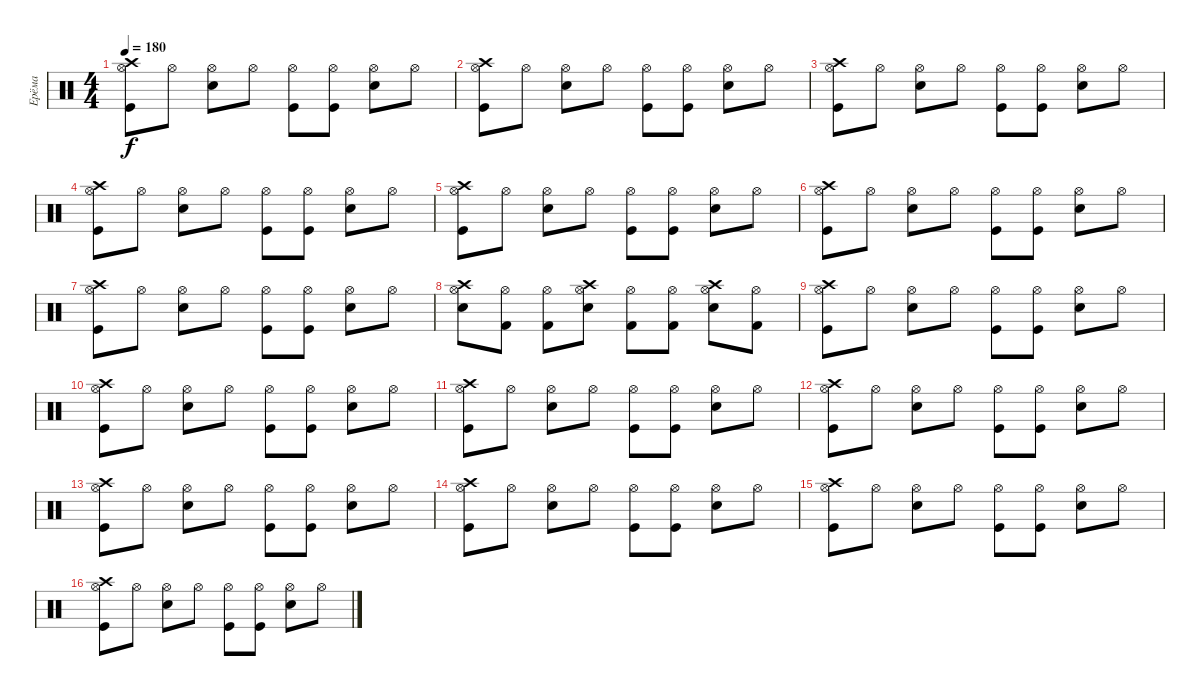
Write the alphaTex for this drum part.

\track ("Ерёма" "Ерёма") {instrument percussion}
\staff {score}
\articulation defaults
\ts (4 4)
\tempo 180
\clef neutral
\ks c
("Hi-Hat (open)" "Kick (hit)" "Crash high (hit)").8{dy f} "Hi-Hat (open)".8 ("Hi-Hat (open)" "Electric Snare (hit)").8 "Hi-Hat (open)".8 ("Hi-Hat (open)" "Kick (hit)").8 ("Hi-Hat (open)" "Kick (hit)").8 ("Hi-Hat (open)" "Electric Snare (hit)").8 "Hi-Hat (open)".8 |
("Hi-Hat (open)" "Kick (hit)" "Crash high (hit)").8 "Hi-Hat (open)".8 ("Hi-Hat (open)" "Electric Snare (hit)").8 "Hi-Hat (open)".8 ("Hi-Hat (open)" "Kick (hit)").8 ("Hi-Hat (open)" "Kick (hit)").8 ("Hi-Hat (open)" "Electric Snare (hit)").8 "Hi-Hat (open)".8 |
("Hi-Hat (open)" "Kick (hit)" "Crash high (hit)").8 "Hi-Hat (open)".8 ("Hi-Hat (open)" "Electric Snare (hit)").8 "Hi-Hat (open)".8 ("Hi-Hat (open)" "Kick (hit)").8 ("Hi-Hat (open)" "Kick (hit)").8 ("Hi-Hat (open)" "Electric Snare (hit)").8 "Hi-Hat (open)".8 |
("Hi-Hat (open)" "Kick (hit)" "Crash high (hit)").8 "Hi-Hat (open)".8 ("Hi-Hat (open)" "Electric Snare (hit)").8 "Hi-Hat (open)".8 ("Hi-Hat (open)" "Kick (hit)").8 ("Hi-Hat (open)" "Kick (hit)").8 ("Hi-Hat (open)" "Electric Snare (hit)").8 "Hi-Hat (open)".8 |
("Hi-Hat (open)" "Kick (hit)" "Crash high (hit)").8 "Hi-Hat (open)".8 ("Hi-Hat (open)" "Electric Snare (hit)").8 "Hi-Hat (open)".8 ("Hi-Hat (open)" "Kick (hit)").8 ("Hi-Hat (open)" "Kick (hit)").8 ("Hi-Hat (open)" "Electric Snare (hit)").8 "Hi-Hat (open)".8 |
("Hi-Hat (open)" "Kick (hit)" "Crash high (hit)").8 "Hi-Hat (open)".8 ("Hi-Hat (open)" "Electric Snare (hit)").8 "Hi-Hat (open)".8 ("Hi-Hat (open)" "Kick (hit)").8 ("Hi-Hat (open)" "Kick (hit)").8 ("Hi-Hat (open)" "Electric Snare (hit)").8 "Hi-Hat (open)".8 |
("Hi-Hat (open)" "Kick (hit)" "Crash high (hit)").8 "Hi-Hat (open)".8 ("Hi-Hat (open)" "Electric Snare (hit)").8 "Hi-Hat (open)".8 ("Hi-Hat (open)" "Kick (hit)").8 ("Hi-Hat (open)" "Kick (hit)").8 ("Hi-Hat (open)" "Electric Snare (hit)").8 "Hi-Hat (open)".8 |
("Hi-Hat (open)" "Electric Snare (hit)" "Crash high (hit)").8 ("Hi-Hat (open)" "Kick (hit) 2").8 ("Hi-Hat (open)" "Kick (hit) 2").8 ("Hi-Hat (open)" "Electric Snare (hit)" "Crash high (hit)").8 ("Hi-Hat (open)" "Kick (hit) 2").8 ("Hi-Hat (open)" "Kick (hit) 2").8 ("Hi-Hat (open)" "Electric Snare (hit)" "Crash high (hit)").8 ("Hi-Hat (open)" "Kick (hit) 2").8 |
("Hi-Hat (open)" "Kick (hit)" "Crash high (hit)").8 "Hi-Hat (open)".8 ("Hi-Hat (open)" "Electric Snare (hit)").8 "Hi-Hat (open)".8 ("Hi-Hat (open)" "Kick (hit)").8 ("Hi-Hat (open)" "Kick (hit)").8 ("Hi-Hat (open)" "Electric Snare (hit)").8 "Hi-Hat (open)".8 |
("Hi-Hat (open)" "Kick (hit)" "Crash high (hit)").8 "Hi-Hat (open)".8 ("Hi-Hat (open)" "Electric Snare (hit)").8 "Hi-Hat (open)".8 ("Hi-Hat (open)" "Kick (hit)").8 ("Hi-Hat (open)" "Kick (hit)").8 ("Hi-Hat (open)" "Electric Snare (hit)").8 "Hi-Hat (open)".8 |
("Hi-Hat (open)" "Kick (hit)" "Crash high (hit)").8 "Hi-Hat (open)".8 ("Hi-Hat (open)" "Electric Snare (hit)").8 "Hi-Hat (open)".8 ("Hi-Hat (open)" "Kick (hit)").8 ("Hi-Hat (open)" "Kick (hit)").8 ("Hi-Hat (open)" "Electric Snare (hit)").8 "Hi-Hat (open)".8 |
("Hi-Hat (open)" "Kick (hit)" "Crash high (hit)").8 "Hi-Hat (open)".8 ("Hi-Hat (open)" "Electric Snare (hit)").8 "Hi-Hat (open)".8 ("Hi-Hat (open)" "Kick (hit)").8 ("Hi-Hat (open)" "Kick (hit)").8 ("Hi-Hat (open)" "Electric Snare (hit)").8 "Hi-Hat (open)".8 |
("Hi-Hat (open)" "Kick (hit)" "Crash high (hit)").8 "Hi-Hat (open)".8 ("Hi-Hat (open)" "Electric Snare (hit)").8 "Hi-Hat (open)".8 ("Hi-Hat (open)" "Kick (hit)").8 ("Hi-Hat (open)" "Kick (hit)").8 ("Hi-Hat (open)" "Electric Snare (hit)").8 "Hi-Hat (open)".8 |
("Hi-Hat (open)" "Kick (hit)" "Crash high (hit)").8 "Hi-Hat (open)".8 ("Hi-Hat (open)" "Electric Snare (hit)").8 "Hi-Hat (open)".8 ("Hi-Hat (open)" "Kick (hit)").8 ("Hi-Hat (open)" "Kick (hit)").8 ("Hi-Hat (open)" "Electric Snare (hit)").8 "Hi-Hat (open)".8 |
("Hi-Hat (open)" "Kick (hit)" "Crash high (hit)").8 "Hi-Hat (open)".8 ("Hi-Hat (open)" "Electric Snare (hit)").8 "Hi-Hat (open)".8 ("Hi-Hat (open)" "Kick (hit)").8 ("Hi-Hat (open)" "Kick (hit)").8 ("Hi-Hat (open)" "Electric Snare (hit)").8 "Hi-Hat (open)".8 |
("Hi-Hat (open)" "Kick (hit)" "Crash high (hit)").8 "Hi-Hat (open)".8 ("Hi-Hat (open)" "Electric Snare (hit)").8 "Hi-Hat (open)".8 ("Hi-Hat (open)" "Kick (hit)").8 ("Hi-Hat (open)" "Kick (hit)").8 ("Hi-Hat (open)" "Electric Snare (hit)").8 "Hi-Hat (open)".8
